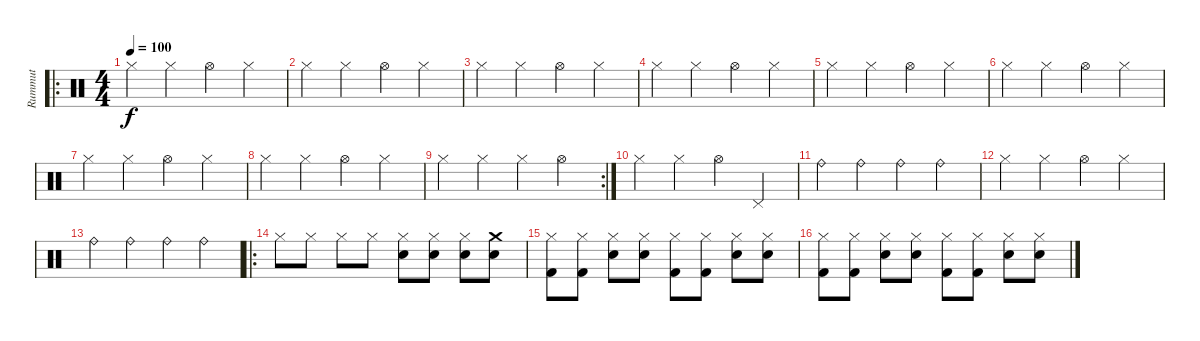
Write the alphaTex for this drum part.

\track ("Rummut" "Rummut") {instrument percussion}
\staff {score}
\articulation defaults
\ro
\ts (4 4)
\tempo 100
\clef neutral
\ks c "Hi-Hat (closed)".4{dy f} "Hi-Hat (closed)".4 "Hi-Hat (open)".4 "Hi-Hat (closed)".4
|
"Hi-Hat (closed)".4 "Hi-Hat (closed)".4 "Hi-Hat (open)".4 "Hi-Hat (closed)".4 |
"Hi-Hat (closed)".4 "Hi-Hat (closed)".4 "Hi-Hat (open)".4 "Hi-Hat (closed)".4 |
"Hi-Hat (closed)".4 "Hi-Hat (closed)".4 "Hi-Hat (open)".4 "Hi-Hat (closed)".4 |
"Hi-Hat (closed)".4 "Hi-Hat (closed)".4 "Hi-Hat (open)".4 "Hi-Hat (closed)".4 |
"Hi-Hat (closed)".4 "Hi-Hat (closed)".4 "Hi-Hat (open)".4 "Hi-Hat (closed)".4 |
"Hi-Hat (closed)".4 "Hi-Hat (closed)".4 "Hi-Hat (open)".4 "Hi-Hat (closed)".4 |
"Hi-Hat (closed)".4 "Hi-Hat (closed)".4 "Hi-Hat (open)".4 "Hi-Hat (closed)".4 |
\rc 2 "Hi-Hat (closed)".4 "Hi-Hat (closed)".4 "Hi-Hat (closed)".4 "Hi-Hat (open)".4
|
"Hi-Hat (closed)".4 "Hi-Hat (closed)".4 "Hi-Hat (open)".4 "Pedal Hi-Hat (hit)".4 |
"Ride (bell)".4 "Ride (bell)".4 "Ride (bell)".4 "Ride (bell)".4 |
"Hi-Hat (closed)".4 "Hi-Hat (closed)".4 "Hi-Hat (open)".4 "Hi-Hat (closed)".4 |
"Ride (bell)".4 "Ride (bell)".4 "Ride (bell)".4 "Ride (bell)".4 |
\ro "Hi-Hat (closed)".8 "Hi-Hat (closed)".8 "Hi-Hat (closed)".8 "Hi-Hat (closed)".8
("Hi-Hat (closed)" "Snare (hit) 2").8 ("Hi-Hat (closed)" "Snare (hit) 2").8 ("Hi-Hat (closed)" "Snare (hit) 2").8 ("Crash medium (hit)" "Snare (hit) 2").8 |
("Hi-Hat (closed)" "Kick (hit) 2").8 ("Hi-Hat (closed)" "Kick (hit) 2").8 ("Hi-Hat (closed)" "Snare (hit) 2").8 ("Hi-Hat (closed)" "Snare (hit) 2").8 ("Hi-Hat (closed)" "Kick (hit) 2").8 ("Hi-Hat (closed)" "Kick (hit) 2").8 ("Hi-Hat (closed)" "Snare (hit) 2").8 ("Hi-Hat (closed)" "Snare (hit) 2").8 |
("Hi-Hat (closed)" "Kick (hit) 2").8 ("Hi-Hat (closed)" "Kick (hit) 2").8 ("Hi-Hat (closed)" "Snare (hit) 2").8 ("Hi-Hat (closed)" "Snare (hit) 2").8 ("Hi-Hat (closed)" "Kick (hit) 2").8 ("Hi-Hat (closed)" "Kick (hit) 2").8 ("Hi-Hat (closed)" "Snare (hit) 2").8 ("Hi-Hat (closed)" "Snare (hit) 2").8
